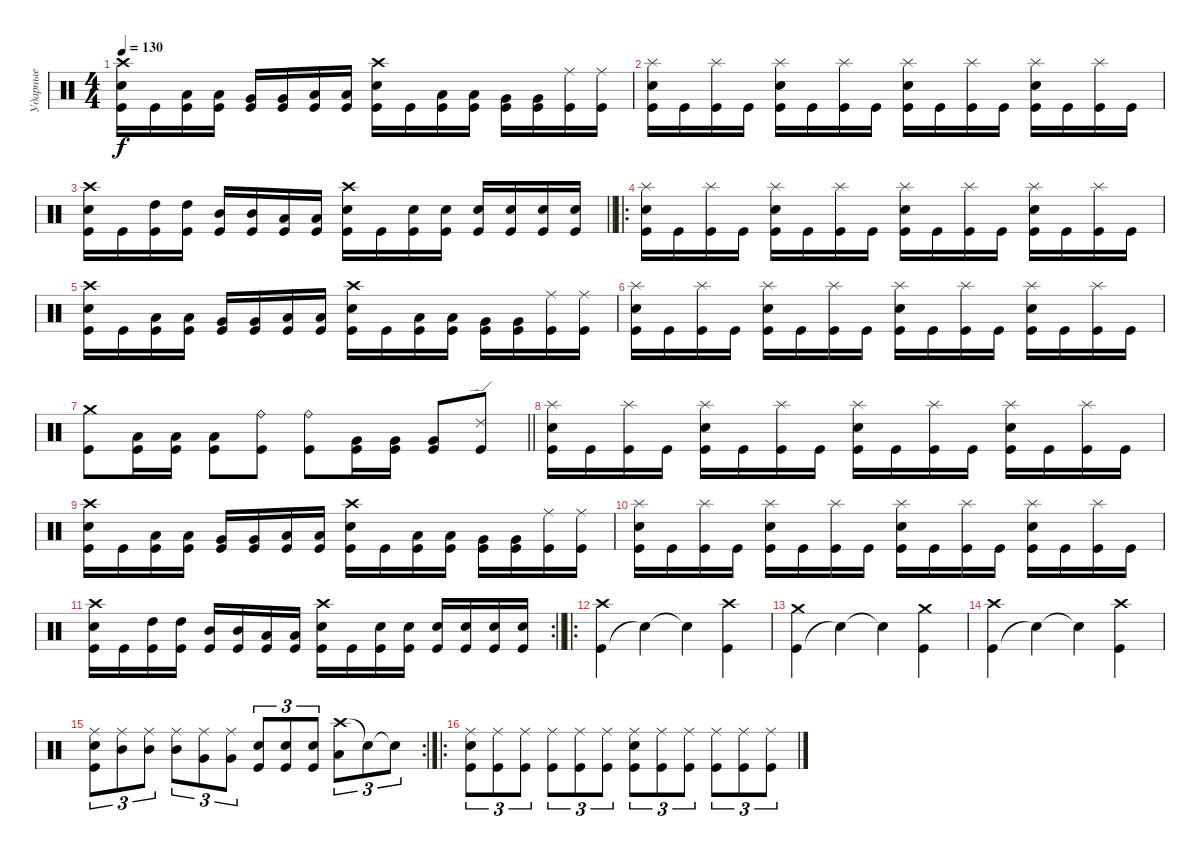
\track ("Ударные" "Ударные") {instrument percussion}
\staff {score}
\articulation defaults
\ts (4 4)
\tempo 130
\clef neutral
\ks c
("Crash high (hit)" "Electric Snare (hit)" "Kick (hit)").16{dy f} "Kick (hit)".16 ("Low Tom (hit)" "Kick (hit)").16 ("Low Tom (hit)" "Kick (hit)").16 ("Very Low Tom (hit)" "Kick (hit)").16 ("Very Low Tom (hit)" "Kick (hit)").16 ("Low Floor Tom (hit)" "Kick (hit)").16 ("Low Floor Tom (hit)" "Kick (hit)").16 ("Crash high (hit)" "Electric Snare (hit)" "Kick (hit)").16 "Kick (hit)".16 ("Low Tom (hit)" "Kick (hit)").16 ("Low Tom (hit)" "Kick (hit)").16 ("Very Low Tom (hit)" "Kick (hit)").16 ("Very Low Tom (hit)" "Kick (hit)").16 ("Ride (middle)" "Kick (hit)").16 ("Ride (middle)" "Kick (hit)").16 |
("Splash (hit)" "Electric Snare (hit)" "Kick (hit)").16 "Kick (hit)".16 ("Splash (hit)" "Kick (hit)").16 "Kick (hit)".16 ("Splash (hit)" "Electric Snare (hit)" "Kick (hit)").16 "Kick (hit)".16 ("Splash (hit)" "Kick (hit)").16 "Kick (hit)".16 ("Splash (hit)" "Electric Snare (hit)" "Kick (hit)").16 "Kick (hit)".16 ("Splash (hit)" "Kick (hit)").16 "Kick (hit)".16 ("Splash (hit)" "Electric Snare (hit)" "Kick (hit)").16 "Kick (hit)".16 ("Splash (hit)" "Kick (hit)").16 "Kick (hit)".16 |
\barLineRight lightlight
("Crash high (hit)" "Electric Snare (hit)" "Kick (hit)").16 "Kick (hit)".16 ("High Tom (hit)" "Kick (hit)").16 ("High Tom (hit)" "Kick (hit)").16 ("Mid Tom (hit)" "Kick (hit)").16 ("Mid Tom (hit)" "Kick (hit)").16 ("Low Tom (hit)" "Kick (hit)").16 ("Low Tom (hit)" "Kick (hit)").16 ("Crash high (hit)" "Electric Snare (hit)" "Kick (hit)").16 "Kick (hit)".16 ("Electric Snare (hit)" "Kick (hit)").16 ("Electric Snare (hit)" "Kick (hit)").16 ("Electric Snare (hit)" "Kick (hit)").16 ("Electric Snare (hit)" "Kick (hit)").16 ("Electric Snare (hit)" "Kick (hit)").16 ("Electric Snare (hit)" "Kick (hit)").16 |
\ro
("Splash (hit)" "Electric Snare (hit)" "Kick (hit)").16 "Kick (hit)".16 ("Splash (hit)" "Kick (hit)").16 "Kick (hit)".16 ("Splash (hit)" "Electric Snare (hit)" "Kick (hit)").16 "Kick (hit)".16 ("Splash (hit)" "Kick (hit)").16 "Kick (hit)".16 ("Splash (hit)" "Electric Snare (hit)" "Kick (hit)").16 "Kick (hit)".16 ("Splash (hit)" "Kick (hit)").16 "Kick (hit)".16 ("Splash (hit)" "Electric Snare (hit)" "Kick (hit)").16 "Kick (hit)".16 ("Splash (hit)" "Kick (hit)").16 "Kick (hit)".16 |
("Crash high (hit)" "Electric Snare (hit)" "Kick (hit)").16 "Kick (hit)".16 ("Low Tom (hit)" "Kick (hit)").16 ("Low Tom (hit)" "Kick (hit)").16 ("Very Low Tom (hit)" "Kick (hit)").16 ("Very Low Tom (hit)" "Kick (hit)").16 ("Low Floor Tom (hit)" "Kick (hit)").16 ("Low Floor Tom (hit)" "Kick (hit)").16 ("Crash high (hit)" "Electric Snare (hit)" "Kick (hit)").16 "Kick (hit)".16 ("Low Tom (hit)" "Kick (hit)").16 ("Low Tom (hit)" "Kick (hit)").16 ("Very Low Tom (hit)" "Kick (hit)").16 ("Very Low Tom (hit)" "Kick (hit)").16 ("Ride (middle)" "Kick (hit)").16 ("Ride (middle)" "Kick (hit)").16 |
("Splash (hit)" "Electric Snare (hit)" "Kick (hit)").16 "Kick (hit)".16 ("Splash (hit)" "Kick (hit)").16 "Kick (hit)".16 ("Splash (hit)" "Electric Snare (hit)" "Kick (hit)").16 "Kick (hit)".16 ("Splash (hit)" "Kick (hit)").16 "Kick (hit)".16 ("Splash (hit)" "Electric Snare (hit)" "Kick (hit)").16 "Kick (hit)".16 ("Splash (hit)" "Kick (hit)").16 "Kick (hit)".16 ("Splash (hit)" "Electric Snare (hit)" "Kick (hit)").16 "Kick (hit)".16 ("Splash (hit)" "Kick (hit)").16 "Kick (hit)".16 |
\barLineRight lightlight
("Crash medium (hit)" "Kick (hit)").8 ("Low Tom (hit)" "Kick (hit)").16 ("Low Tom (hit)" "Kick (hit)").16 ("Low Tom (hit)" "Kick (hit)").8 ("Ride (bell)" "Kick (hit)").8 ("Ride (bell)" "Kick (hit)").8 ("Very Low Tom (hit)" "Kick (hit)").16 ("Very Low Tom (hit)" "Kick (hit)").16 ("Very Low Tom (hit)" "Kick (hit)").8 ("Ride (edge) 2" "Kick (hit)").8 |
("Splash (hit)" "Electric Snare (hit)" "Kick (hit)").16 "Kick (hit)".16 ("Splash (hit)" "Kick (hit)").16 "Kick (hit)".16 ("Splash (hit)" "Electric Snare (hit)" "Kick (hit)").16 "Kick (hit)".16 ("Splash (hit)" "Kick (hit)").16 "Kick (hit)".16 ("Splash (hit)" "Electric Snare (hit)" "Kick (hit)").16 "Kick (hit)".16 ("Splash (hit)" "Kick (hit)").16 "Kick (hit)".16 ("Splash (hit)" "Electric Snare (hit)" "Kick (hit)").16 "Kick (hit)".16 ("Splash (hit)" "Kick (hit)").16 "Kick (hit)".16 |
("Crash high (hit)" "Electric Snare (hit)" "Kick (hit)").16 "Kick (hit)".16 ("Low Tom (hit)" "Kick (hit)").16 ("Low Tom (hit)" "Kick (hit)").16 ("Very Low Tom (hit)" "Kick (hit)").16 ("Very Low Tom (hit)" "Kick (hit)").16 ("Low Floor Tom (hit)" "Kick (hit)").16 ("Low Floor Tom (hit)" "Kick (hit)").16 ("Crash high (hit)" "Electric Snare (hit)" "Kick (hit)").16 "Kick (hit)".16 ("Low Tom (hit)" "Kick (hit)").16 ("Low Tom (hit)" "Kick (hit)").16 ("Very Low Tom (hit)" "Kick (hit)").16 ("Very Low Tom (hit)" "Kick (hit)").16 ("Ride (middle)" "Kick (hit)").16 ("Ride (middle)" "Kick (hit)").16 |
("Splash (hit)" "Electric Snare (hit)" "Kick (hit)").16 "Kick (hit)".16 ("Splash (hit)" "Kick (hit)").16 "Kick (hit)".16 ("Splash (hit)" "Electric Snare (hit)" "Kick (hit)").16 "Kick (hit)".16 ("Splash (hit)" "Kick (hit)").16 "Kick (hit)".16 ("Splash (hit)" "Electric Snare (hit)" "Kick (hit)").16 "Kick (hit)".16 ("Splash (hit)" "Kick (hit)").16 "Kick (hit)".16 ("Splash (hit)" "Electric Snare (hit)" "Kick (hit)").16 "Kick (hit)".16 ("Splash (hit)" "Kick (hit)").16 "Kick (hit)".16 |
\rc 2
\barLineRight lightlight
("Crash high (hit)" "Electric Snare (hit)" "Kick (hit)").16 "Kick (hit)".16 ("High Tom (hit)" "Kick (hit)").16 ("High Tom (hit)" "Kick (hit)").16 ("Mid Tom (hit)" "Kick (hit)").16 ("Mid Tom (hit)" "Kick (hit)").16 ("Low Tom (hit)" "Kick (hit)").16 ("Low Tom (hit)" "Kick (hit)").16 ("Crash high (hit)" "Electric Snare (hit)" "Kick (hit)").16 "Kick (hit)".16 ("Electric Snare (hit)" "Kick (hit)").16 ("Electric Snare (hit)" "Kick (hit)").16 ("Electric Snare (hit)" "Kick (hit)").16 ("Electric Snare (hit)" "Kick (hit)").16 ("Electric Snare (hit)" "Kick (hit)").16 ("Electric Snare (hit)" "Kick (hit)").16 |
\ro
("Kick (hit)" "Crash high (hit)").4 "Snare (hit)"{t}.4 "Snare (hit)"{t}.4 ("Kick (hit)" "Crash high (hit)").4 |
("Kick (hit)" "Crash medium (hit)").4 "Snare (hit)"{t}.4 "Snare (hit)"{t}.4 ("Kick (hit)" "Crash medium (hit)").4 |
("Kick (hit)" "Crash high (hit)").4 "Snare (hit)"{t}.4 "Snare (hit)"{t}.4 ("Kick (hit)" "Crash high (hit)").4 |
\rc 2
("Electric Snare (hit)" "Kick (hit)" "Ride (middle)").8{tu (3 2)} ("Mid Tom (hit)" "Ride (middle)").8{tu (3 2)} ("Mid Tom (hit)" "Ride (middle)").8{tu (3 2)} ("Mid Tom (hit)" "Ride (middle)").8{tu (3 2)} ("Very Low Tom (hit)" "Ride (middle)").8{tu (3 2)} ("Very Low Tom (hit)" "Ride (middle)").8{tu (3 2)} ("Electric Snare (hit)" "Kick (hit)").8{tu (3 2)} ("Electric Snare (hit)" "Kick (hit)").8{tu (3 2)} ("Electric Snare (hit)" "Kick (hit)").8{tu (3 2)} ("Crash high (hit)" "Low Floor Tom (hit)").8{tu (3 2)} "Snare (hit)"{t}.8{tu (3 2)} "Snare (hit)"{t}.8{tu (3 2)} |
\ro
("Electric Snare (hit)" "Kick (hit)" "Ride (middle)").8{tu (3 2)} ("Kick (hit)" "Ride (middle)").8{tu (3 2)} ("Kick (hit)" "Ride (middle)").8{tu (3 2)} ("Kick (hit)" "Ride (middle)").8{tu (3 2)} ("Kick (hit)" "Ride (middle)").8{tu (3 2)} ("Kick (hit)" "Ride (middle)").8{tu (3 2)} ("Electric Snare (hit)" "Kick (hit)" "Ride (middle)").8{tu (3 2)} ("Kick (hit)" "Ride (middle)").8{tu (3 2)} ("Kick (hit)" "Ride (middle)").8{tu (3 2)} ("Kick (hit)" "Ride (middle)").8{tu (3 2)} ("Kick (hit)" "Ride (middle)").8{tu (3 2)} ("Kick (hit)" "Ride (middle)").8{tu (3 2)}
